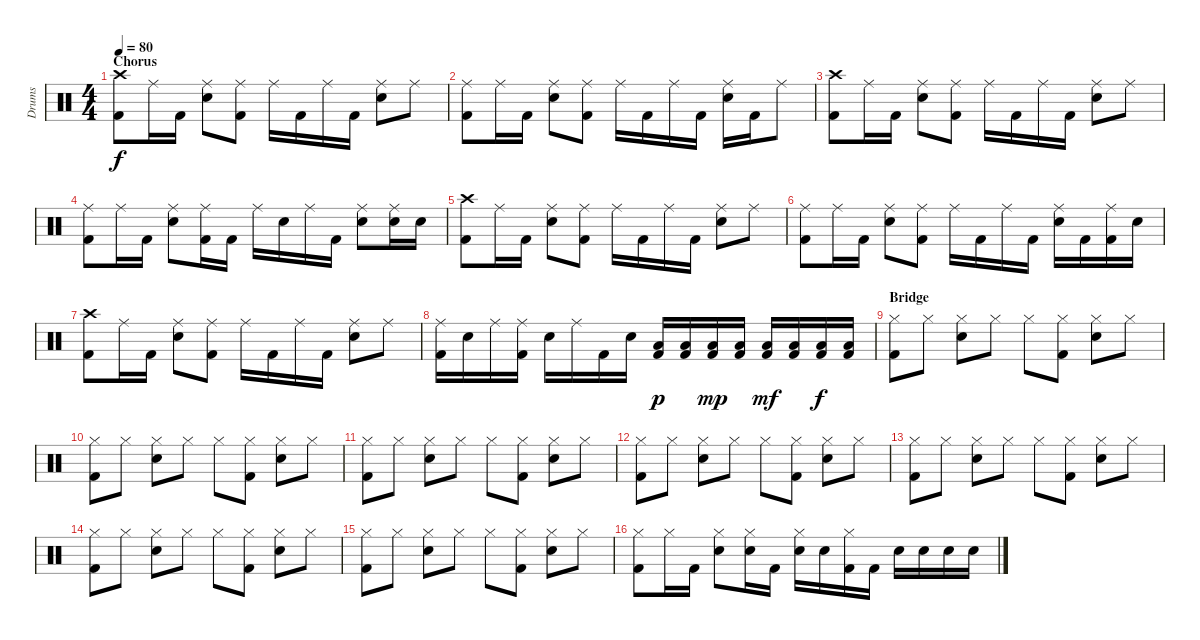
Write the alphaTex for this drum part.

\track ("Drums" "Drums") {instrument percussion}
\staff {score}
\articulation defaults
\ts (4 4)
\section ("" "Chorus")
\tempo 80
\clef neutral
\ks c
("Crash high (hit)" "Kick (hit) 2").8{dy f} "Ride (middle)".16 "Kick (hit) 2".16 ("Ride (middle)" "Snare (hit) 2").8 ("Ride (middle)" "Kick (hit) 2").8 "Ride (middle)".16 "Kick (hit) 2".16 "Ride (middle)".16 "Kick (hit) 2".16 ("Ride (middle)" "Snare (hit) 2").8 "Ride (middle)".8 |
("Ride (middle)" "Kick (hit) 2").8 "Ride (middle)".16 "Kick (hit) 2".16 ("Ride (middle)" "Snare (hit) 2").8 ("Ride (middle)" "Kick (hit) 2").8 "Ride (middle)".16 "Kick (hit) 2".16 "Ride (middle)".16 "Kick (hit) 2".16 ("Ride (middle)" "Snare (hit) 2").16 "Kick (hit) 2".16 "Ride (middle)".8 |
("Crash high (hit)" "Kick (hit) 2").8 "Ride (middle)".16 "Kick (hit) 2".16 ("Ride (middle)" "Snare (hit) 2").8 ("Ride (middle)" "Kick (hit) 2").8 "Ride (middle)".16 "Kick (hit) 2".16 "Ride (middle)".16 "Kick (hit) 2".16 ("Ride (middle)" "Snare (hit) 2").8 "Ride (middle)".8 |
("Ride (middle)" "Kick (hit) 2").8 "Ride (middle)".16 "Kick (hit) 2".16 ("Ride (middle)" "Snare (hit) 2").8 ("Ride (middle)" "Kick (hit) 2").16 "Kick (hit) 2".16 "Ride (middle)".16 "Snare (hit) 2".16 "Ride (middle)".16 "Kick (hit) 2".16 ("Ride (middle)" "Snare (hit) 2").8 ("Ride (middle)" "Snare (hit) 2").16 "Snare (hit) 2".16 |
("Crash high (hit)" "Kick (hit) 2").8 "Ride (middle)".16 "Kick (hit) 2".16 ("Ride (middle)" "Snare (hit) 2").8 ("Ride (middle)" "Kick (hit) 2").8 "Ride (middle)".16 "Kick (hit) 2".16 "Ride (middle)".16 "Kick (hit) 2".16 ("Ride (middle)" "Snare (hit) 2").8 "Ride (middle)".8 |
("Ride (middle)" "Kick (hit) 2").8 "Ride (middle)".16 "Kick (hit) 2".16 ("Ride (middle)" "Snare (hit) 2").8 ("Ride (middle)" "Kick (hit) 2").8 "Ride (middle)".16 "Kick (hit) 2".16 "Ride (middle)".16 "Kick (hit) 2".16 ("Ride (middle)" "Snare (hit) 2").16 "Kick (hit) 2".16 ("Ride (middle)" "Kick (hit) 2").16 "Snare (hit) 2".16 |
("Crash high (hit)" "Kick (hit) 2").8 "Ride (middle)".16 "Kick (hit) 2".16 ("Ride (middle)" "Snare (hit) 2").8 ("Ride (middle)" "Kick (hit) 2").8 "Ride (middle)".16 "Kick (hit) 2".16 "Ride (middle)".16 "Kick (hit) 2".16 ("Ride (middle)" "Snare (hit) 2").8 "Ride (middle)".8 |
("Ride (middle)" "Kick (hit) 2").16 "Snare (hit) 2".16 "Ride (middle)".16 ("Ride (middle)" "Kick (hit) 2").16 "Snare (hit) 2".16 "Ride (middle)".16 "Kick (hit) 2".16 "Snare (hit) 2".16 ("Low Floor Tom (hit)" "Kick (hit) 2").16{dy p} ("Low Floor Tom (hit)" "Kick (hit) 2").16 ("Low Floor Tom (hit)" "Kick (hit) 2").16{dy mp} ("Low Floor Tom (hit)" "Kick (hit) 2").16 ("Low Floor Tom (hit)" "Kick (hit) 2").16{dy mf} ("Low Floor Tom (hit)" "Kick (hit) 2").16 ("Low Floor Tom (hit)" "Kick (hit) 2").16{dy f} ("Low Floor Tom (hit)" "Kick (hit) 2").16 |
\section ("" "Bridge")
("Hi-Hat (closed)" "Kick (hit) 2").8 "Hi-Hat (closed)".8 ("Hi-Hat (closed)" "Snare (hit) 2").8 "Hi-Hat (closed)".8 "Hi-Hat (closed)".8 ("Hi-Hat (closed)" "Kick (hit) 2").8 ("Hi-Hat (closed)" "Snare (hit) 2").8 "Hi-Hat (closed)".8 |
("Hi-Hat (closed)" "Kick (hit) 2").8 "Hi-Hat (closed)".8 ("Hi-Hat (closed)" "Snare (hit) 2").8 "Hi-Hat (closed)".8 "Hi-Hat (closed)".8 ("Hi-Hat (closed)" "Kick (hit) 2").8 ("Hi-Hat (closed)" "Snare (hit) 2").8 "Hi-Hat (closed)".8 |
("Hi-Hat (closed)" "Kick (hit) 2").8 "Hi-Hat (closed)".8 ("Hi-Hat (closed)" "Snare (hit) 2").8 "Hi-Hat (closed)".8 "Hi-Hat (closed)".8 ("Hi-Hat (closed)" "Kick (hit) 2").8 ("Hi-Hat (closed)" "Snare (hit) 2").8 "Hi-Hat (closed)".8 |
("Hi-Hat (closed)" "Kick (hit) 2").8 "Hi-Hat (closed)".8 ("Hi-Hat (closed)" "Snare (hit) 2").8 "Hi-Hat (closed)".8 "Hi-Hat (closed)".8 ("Hi-Hat (closed)" "Kick (hit) 2").8 ("Hi-Hat (closed)" "Snare (hit) 2").8 "Hi-Hat (closed)".8 |
("Hi-Hat (closed)" "Kick (hit) 2").8 "Hi-Hat (closed)".8 ("Hi-Hat (closed)" "Snare (hit) 2").8 "Hi-Hat (closed)".8 "Hi-Hat (closed)".8 ("Hi-Hat (closed)" "Kick (hit) 2").8 ("Hi-Hat (closed)" "Snare (hit) 2").8 "Hi-Hat (closed)".8 |
("Hi-Hat (closed)" "Kick (hit) 2").8 "Hi-Hat (closed)".8 ("Hi-Hat (closed)" "Snare (hit) 2").8 "Hi-Hat (closed)".8 "Hi-Hat (closed)".8 ("Hi-Hat (closed)" "Kick (hit) 2").8 ("Hi-Hat (closed)" "Snare (hit) 2").8 "Hi-Hat (closed)".8 |
("Hi-Hat (closed)" "Kick (hit) 2").8 "Hi-Hat (closed)".8 ("Hi-Hat (closed)" "Snare (hit) 2").8 "Hi-Hat (closed)".8 "Hi-Hat (closed)".8 ("Hi-Hat (closed)" "Kick (hit) 2").8 ("Hi-Hat (closed)" "Snare (hit) 2").8 "Hi-Hat (closed)".8 |
("Hi-Hat (closed)" "Kick (hit) 2").8 "Hi-Hat (closed)".16 "Kick (hit) 2".16 ("Hi-Hat (closed)" "Snare (hit) 2").8 ("Hi-Hat (closed)" "Snare (hit) 2").16 "Kick (hit) 2".16 ("Hi-Hat (closed)" "Snare (hit) 2").16 "Snare (hit) 2".16 ("Hi-Hat (closed)" "Kick (hit) 2").16 "Kick (hit) 2".16 "Snare (hit) 2".16 "Snare (hit) 2".16 "Snare (hit) 2".16 "Snare (hit) 2".16
